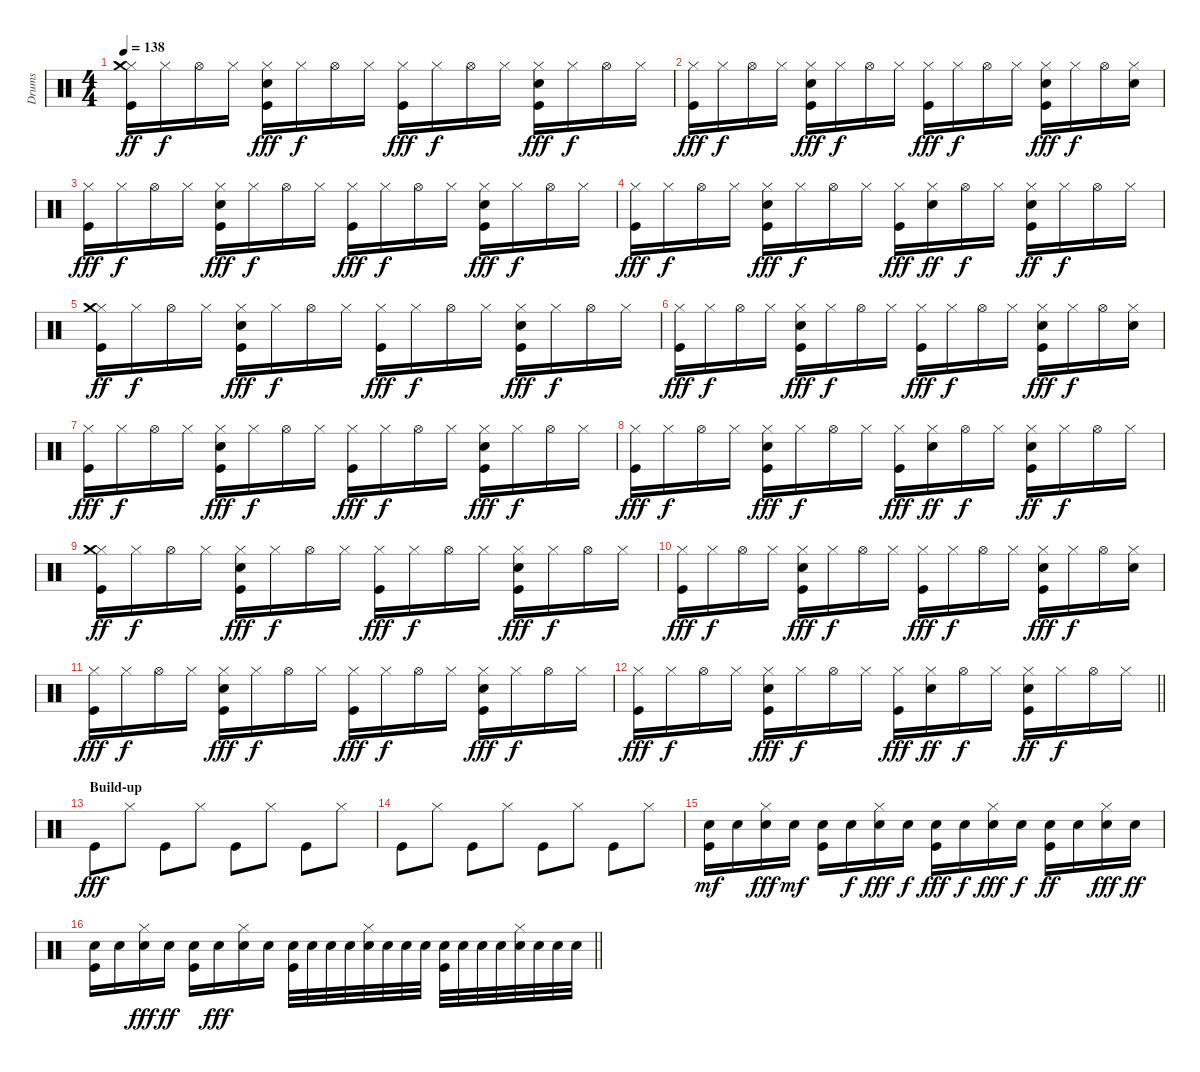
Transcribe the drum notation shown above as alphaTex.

\track ("Drums" "Drums") {instrument percussion}
\staff {score}
\articulation defaults
\ts (4 4)
\tempo 138
\clef neutral
\ks c
("Kick (hit)" "Hi-Hat (closed)" "Crash medium (hit)").16{dy ff} "Hi-Hat (closed)".16{dy f} "Hi-Hat (open)".16 "Hi-Hat (closed)".16 ("Kick (hit)" "Electric Snare (hit)" "Hi-Hat (closed)").16{dy fff} "Hi-Hat (closed)".16{dy f} "Hi-Hat (open)".16 "Hi-Hat (closed)".16 ("Kick (hit)" "Hi-Hat (closed)").16{dy fff} "Hi-Hat (closed)".16{dy f} "Hi-Hat (open)".16 "Hi-Hat (closed)".16 ("Kick (hit)" "Electric Snare (hit)" "Hi-Hat (closed)").16{dy fff} "Hi-Hat (closed)".16{dy f} "Hi-Hat (open)".16 "Hi-Hat (closed)".16 |
("Kick (hit)" "Hi-Hat (closed)").16{dy fff} "Hi-Hat (closed)".16{dy f} "Hi-Hat (open)".16 "Hi-Hat (closed)".16 ("Kick (hit)" "Electric Snare (hit)" "Hi-Hat (closed)").16{dy fff} "Hi-Hat (closed)".16{dy f} "Hi-Hat (open)".16 "Hi-Hat (closed)".16 ("Kick (hit)" "Hi-Hat (closed)").16{dy fff} "Hi-Hat (closed)".16{dy f} "Hi-Hat (open)".16 "Hi-Hat (closed)".16 ("Kick (hit)" "Electric Snare (hit)" "Hi-Hat (closed)").16{dy fff} "Hi-Hat (closed)".16{dy f} "Hi-Hat (open)".16 ("Electric Snare (hit)" "Hi-Hat (closed)").16 |
("Kick (hit)" "Hi-Hat (closed)").16{dy fff} "Hi-Hat (closed)".16{dy f} "Hi-Hat (open)".16 "Hi-Hat (closed)".16 ("Kick (hit)" "Electric Snare (hit)" "Hi-Hat (closed)").16{dy fff} "Hi-Hat (closed)".16{dy f} "Hi-Hat (open)".16 "Hi-Hat (closed)".16 ("Kick (hit)" "Hi-Hat (closed)").16{dy fff} "Hi-Hat (closed)".16{dy f} "Hi-Hat (open)".16 "Hi-Hat (closed)".16 ("Kick (hit)" "Electric Snare (hit)" "Hi-Hat (closed)").16{dy fff} "Hi-Hat (closed)".16{dy f} "Hi-Hat (open)".16 "Hi-Hat (closed)".16 |
("Kick (hit)" "Hi-Hat (closed)").16{dy fff} "Hi-Hat (closed)".16{dy f} "Hi-Hat (open)".16 "Hi-Hat (closed)".16 ("Kick (hit)" "Electric Snare (hit)" "Hi-Hat (closed)").16{dy fff} "Hi-Hat (closed)".16{dy f} "Hi-Hat (open)".16 "Hi-Hat (closed)".16 ("Kick (hit)" "Hi-Hat (closed)").16{dy fff} ("Electric Snare (hit)" "Hi-Hat (closed)").16{dy ff} "Hi-Hat (open)".16{dy f} "Hi-Hat (closed)".16 ("Kick (hit)" "Electric Snare (hit)" "Hi-Hat (closed)").16{dy ff} "Hi-Hat (closed)".16{dy f} "Hi-Hat (open)".16 "Hi-Hat (closed)".16 |
("Kick (hit)" "Hi-Hat (closed)" "Crash medium (hit)").16{dy ff} "Hi-Hat (closed)".16{dy f} "Hi-Hat (open)".16 "Hi-Hat (closed)".16 ("Kick (hit)" "Electric Snare (hit)" "Hi-Hat (closed)").16{dy fff} "Hi-Hat (closed)".16{dy f} "Hi-Hat (open)".16 "Hi-Hat (closed)".16 ("Kick (hit)" "Hi-Hat (closed)").16{dy fff} "Hi-Hat (closed)".16{dy f} "Hi-Hat (open)".16 "Hi-Hat (closed)".16 ("Kick (hit)" "Electric Snare (hit)" "Hi-Hat (closed)").16{dy fff} "Hi-Hat (closed)".16{dy f} "Hi-Hat (open)".16 "Hi-Hat (closed)".16 |
("Kick (hit)" "Hi-Hat (closed)").16{dy fff} "Hi-Hat (closed)".16{dy f} "Hi-Hat (open)".16 "Hi-Hat (closed)".16 ("Kick (hit)" "Electric Snare (hit)" "Hi-Hat (closed)").16{dy fff} "Hi-Hat (closed)".16{dy f} "Hi-Hat (open)".16 "Hi-Hat (closed)".16 ("Kick (hit)" "Hi-Hat (closed)").16{dy fff} "Hi-Hat (closed)".16{dy f} "Hi-Hat (open)".16 "Hi-Hat (closed)".16 ("Kick (hit)" "Electric Snare (hit)" "Hi-Hat (closed)").16{dy fff} "Hi-Hat (closed)".16{dy f} "Hi-Hat (open)".16 ("Electric Snare (hit)" "Hi-Hat (closed)").16 |
("Kick (hit)" "Hi-Hat (closed)").16{dy fff} "Hi-Hat (closed)".16{dy f} "Hi-Hat (open)".16 "Hi-Hat (closed)".16 ("Kick (hit)" "Electric Snare (hit)" "Hi-Hat (closed)").16{dy fff} "Hi-Hat (closed)".16{dy f} "Hi-Hat (open)".16 "Hi-Hat (closed)".16 ("Kick (hit)" "Hi-Hat (closed)").16{dy fff} "Hi-Hat (closed)".16{dy f} "Hi-Hat (open)".16 "Hi-Hat (closed)".16 ("Kick (hit)" "Electric Snare (hit)" "Hi-Hat (closed)").16{dy fff} "Hi-Hat (closed)".16{dy f} "Hi-Hat (open)".16 "Hi-Hat (closed)".16 |
("Kick (hit)" "Hi-Hat (closed)").16{dy fff} "Hi-Hat (closed)".16{dy f} "Hi-Hat (open)".16 "Hi-Hat (closed)".16 ("Kick (hit)" "Electric Snare (hit)" "Hi-Hat (closed)").16{dy fff} "Hi-Hat (closed)".16{dy f} "Hi-Hat (open)".16 "Hi-Hat (closed)".16 ("Kick (hit)" "Hi-Hat (closed)").16{dy fff} ("Electric Snare (hit)" "Hi-Hat (closed)").16{dy ff} "Hi-Hat (open)".16{dy f} "Hi-Hat (closed)".16 ("Kick (hit)" "Electric Snare (hit)" "Hi-Hat (closed)").16{dy ff} "Hi-Hat (closed)".16{dy f} "Hi-Hat (open)".16 "Hi-Hat (closed)".16 |
("Kick (hit)" "Hi-Hat (closed)" "Crash medium (hit)").16{dy ff} "Hi-Hat (closed)".16{dy f} "Hi-Hat (open)".16 "Hi-Hat (closed)".16 ("Kick (hit)" "Electric Snare (hit)" "Hi-Hat (closed)").16{dy fff} "Hi-Hat (closed)".16{dy f} "Hi-Hat (open)".16 "Hi-Hat (closed)".16 ("Kick (hit)" "Hi-Hat (closed)").16{dy fff} "Hi-Hat (closed)".16{dy f} "Hi-Hat (open)".16 "Hi-Hat (closed)".16 ("Kick (hit)" "Electric Snare (hit)" "Hi-Hat (closed)").16{dy fff} "Hi-Hat (closed)".16{dy f} "Hi-Hat (open)".16 "Hi-Hat (closed)".16 |
("Kick (hit)" "Hi-Hat (closed)").16{dy fff} "Hi-Hat (closed)".16{dy f} "Hi-Hat (open)".16 "Hi-Hat (closed)".16 ("Kick (hit)" "Electric Snare (hit)" "Hi-Hat (closed)").16{dy fff} "Hi-Hat (closed)".16{dy f} "Hi-Hat (open)".16 "Hi-Hat (closed)".16 ("Kick (hit)" "Hi-Hat (closed)").16{dy fff} "Hi-Hat (closed)".16{dy f} "Hi-Hat (open)".16 "Hi-Hat (closed)".16 ("Kick (hit)" "Electric Snare (hit)" "Hi-Hat (closed)").16{dy fff} "Hi-Hat (closed)".16{dy f} "Hi-Hat (open)".16 ("Electric Snare (hit)" "Hi-Hat (closed)").16 |
("Kick (hit)" "Hi-Hat (closed)").16{dy fff} "Hi-Hat (closed)".16{dy f} "Hi-Hat (open)".16 "Hi-Hat (closed)".16 ("Kick (hit)" "Electric Snare (hit)" "Hi-Hat (closed)").16{dy fff} "Hi-Hat (closed)".16{dy f} "Hi-Hat (open)".16 "Hi-Hat (closed)".16 ("Kick (hit)" "Hi-Hat (closed)").16{dy fff} "Hi-Hat (closed)".16{dy f} "Hi-Hat (open)".16 "Hi-Hat (closed)".16 ("Kick (hit)" "Electric Snare (hit)" "Hi-Hat (closed)").16{dy fff} "Hi-Hat (closed)".16{dy f} "Hi-Hat (open)".16 "Hi-Hat (closed)".16 |
\barLineRight lightlight
("Kick (hit)" "Hi-Hat (closed)").16{dy fff} "Hi-Hat (closed)".16{dy f} "Hi-Hat (open)".16 "Hi-Hat (closed)".16 ("Kick (hit)" "Electric Snare (hit)" "Hi-Hat (closed)").16{dy fff} "Hi-Hat (closed)".16{dy f} "Hi-Hat (open)".16 "Hi-Hat (closed)".16 ("Kick (hit)" "Hi-Hat (closed)").16{dy fff} ("Electric Snare (hit)" "Hi-Hat (closed)").16{dy ff} "Hi-Hat (open)".16{dy f} "Hi-Hat (closed)".16 ("Kick (hit)" "Electric Snare (hit)" "Hi-Hat (closed)").16{dy ff} "Hi-Hat (closed)".16{dy f} "Hi-Hat (open)".16 "Hi-Hat (closed)".16 |
\section ("" "Build-up")
"Kick (hit)".8{dy fff} "Hi-Hat (closed)".8 "Kick (hit)".8 "Hi-Hat (closed)".8 "Kick (hit)".8 "Hi-Hat (closed)".8 "Kick (hit)".8 "Hi-Hat (closed)".8 |
"Kick (hit)".8 "Hi-Hat (closed)".8 "Kick (hit)".8 "Hi-Hat (closed)".8 "Kick (hit)".8 "Hi-Hat (closed)".8 "Kick (hit)".8 "Hi-Hat (closed)".8 |
("Kick (hit)" "Electric Snare (hit)").16{dy mf} "Electric Snare (hit)".16 ("Electric Snare (hit)" "Hi-Hat (closed)").16{dy fff} "Electric Snare (hit)".16{dy mf} ("Kick (hit)" "Electric Snare (hit)").16 "Electric Snare (hit)".16{dy f} ("Electric Snare (hit)" "Hi-Hat (closed)").16{dy fff} "Electric Snare (hit)".16{dy f} ("Kick (hit)" "Electric Snare (hit)").16{dy fff} "Electric Snare (hit)".16{dy f} ("Electric Snare (hit)" "Hi-Hat (closed)").16{dy fff} "Electric Snare (hit)".16{dy f} ("Kick (hit)" "Electric Snare (hit)").16{dy ff} "Electric Snare (hit)".16 ("Electric Snare (hit)" "Hi-Hat (closed)").16{dy fff} "Electric Snare (hit)".16{dy ff} |
\barLineRight lightlight
("Kick (hit)" "Electric Snare (hit)").16 "Electric Snare (hit)".16 ("Electric Snare (hit)" "Hi-Hat (closed)").16{dy fff} "Electric Snare (hit)".16{dy ff} ("Kick (hit)" "Electric Snare (hit)").16 "Electric Snare (hit)".16{dy fff} ("Electric Snare (hit)" "Hi-Hat (closed)").16 "Electric Snare (hit)".16 ("Kick (hit)" "Electric Snare (hit)").32 "Electric Snare (hit)".32 "Electric Snare (hit)".32 "Electric Snare (hit)".32 ("Electric Snare (hit)" "Hi-Hat (closed)").32 "Electric Snare (hit)".32 "Electric Snare (hit)".32 "Electric Snare (hit)".32 ("Kick (hit)" "Electric Snare (hit)").32 "Electric Snare (hit)".32 "Electric Snare (hit)".32 "Electric Snare (hit)".32 ("Electric Snare (hit)" "Hi-Hat (closed)").32 "Electric Snare (hit)".32 "Electric Snare (hit)".32 "Electric Snare (hit)".32
